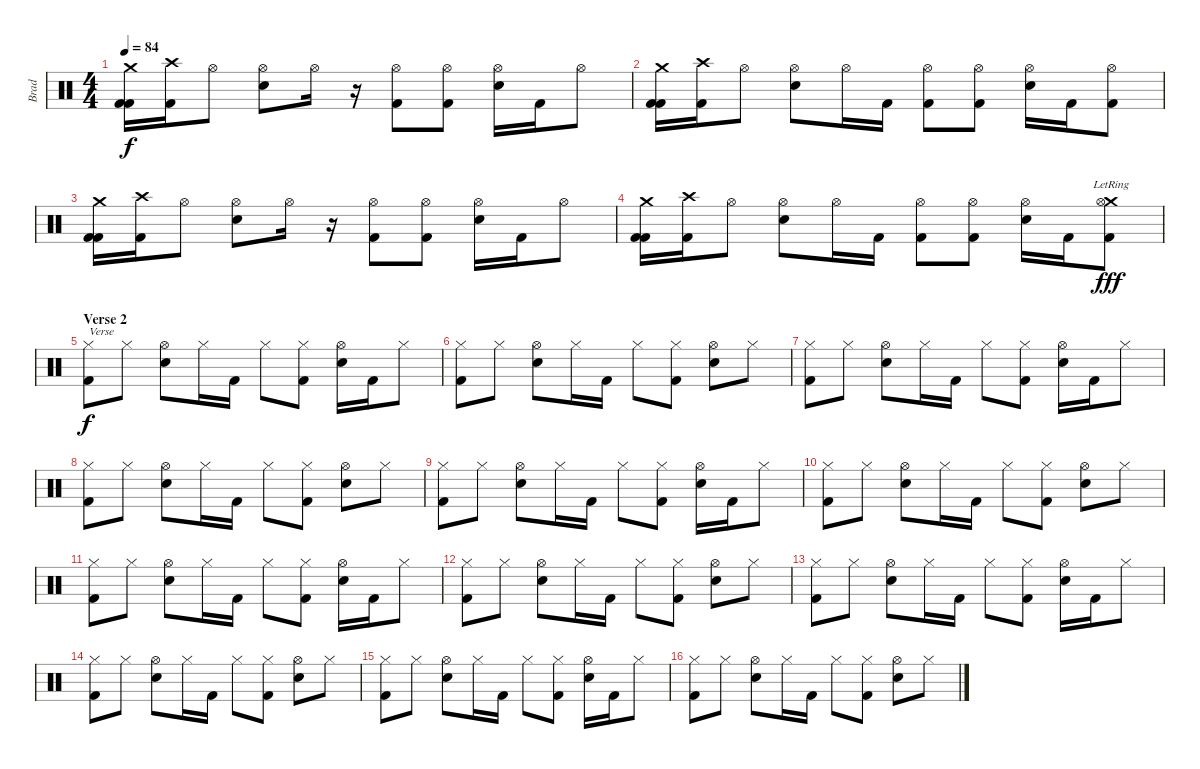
\track ("Brad" "Brad") {instrument percussion}
\staff {score}
\articulation defaults
\ts (4 4)
\tempo 84
\clef neutral
\ks c
("Crash medium (hit)" "Kick (hit) 2" "Kick (hit) 2").16{dy f} ("Crash high (hit)" "Kick (hit) 2").16 "Hi-Hat (open)".8 ("Hi-Hat (open)" "Electric Snare (hit)").8 "Hi-Hat (open)".16 r.16 ("Hi-Hat (open)" "Kick (hit) 2").8 ("Hi-Hat (open)" "Kick (hit) 2").8 ("Hi-Hat (open)" "Electric Snare (hit)").16 "Kick (hit) 2".16 "Hi-Hat (open)".8 |
("Crash medium (hit)" "Kick (hit) 2" "Kick (hit) 2").16 ("Crash high (hit)" "Kick (hit) 2").16 "Hi-Hat (open)".8 ("Hi-Hat (open)" "Electric Snare (hit)").8 "Hi-Hat (open)".16 "Kick (hit) 2".16 ("Hi-Hat (open)" "Kick (hit) 2").8 ("Hi-Hat (open)" "Kick (hit) 2").8 ("Hi-Hat (open)" "Electric Snare (hit)").16 "Kick (hit) 2".16 ("Hi-Hat (open)" "Kick (hit) 2").8 |
("Crash medium (hit)" "Kick (hit) 2" "Kick (hit) 2").16 ("Crash high (hit)" "Kick (hit) 2").16 "Hi-Hat (open)".8 ("Hi-Hat (open)" "Electric Snare (hit)").8 "Hi-Hat (open)".16 r.16 ("Hi-Hat (open)" "Kick (hit) 2").8 ("Hi-Hat (open)" "Kick (hit) 2").8 ("Hi-Hat (open)" "Electric Snare (hit)").16 "Kick (hit) 2".16 "Hi-Hat (open)".8 |
("Crash medium (hit)" "Kick (hit) 2" "Kick (hit) 2").16 ("Crash high (hit)" "Kick (hit) 2").16 "Hi-Hat (open)".8 ("Hi-Hat (open)" "Electric Snare (hit)").8 "Hi-Hat (open)".16 "Kick (hit) 2".16 ("Hi-Hat (open)" "Kick (hit) 2").8 ("Hi-Hat (open)" "Kick (hit) 2").8 ("Hi-Hat (open)" "Electric Snare (hit)").16 "Kick (hit) 2".16 ("Crash medium (hit)"{lr} "Hi-Hat (open)" "Kick (hit) 2").8{dy fff} |
\section ("" "Verse 2")
("Hi-Hat (closed)" "Kick (hit) 2").8{txt "Verse" dy f} "Hi-Hat (closed)".8 ("Hi-Hat (open)" "Electric Snare (hit)").8 "Hi-Hat (closed)".16 "Kick (hit) 2".16 "Hi-Hat (closed)".8 ("Hi-Hat (closed)" "Kick (hit) 2").8 ("Hi-Hat (open)" "Electric Snare (hit)").16 "Kick (hit) 2".16 "Hi-Hat (closed)".8 |
("Hi-Hat (closed)" "Kick (hit) 2").8 "Hi-Hat (closed)".8 ("Hi-Hat (open)" "Electric Snare (hit)").8 "Hi-Hat (closed)".16 "Kick (hit) 2".16 "Hi-Hat (closed)".8 ("Hi-Hat (closed)" "Kick (hit) 2").8 ("Hi-Hat (open)" "Electric Snare (hit)").8 "Hi-Hat (closed)".8 |
("Hi-Hat (closed)" "Kick (hit) 2").8 "Hi-Hat (closed)".8 ("Hi-Hat (open)" "Electric Snare (hit)").8 "Hi-Hat (closed)".16 "Kick (hit) 2".16 "Hi-Hat (closed)".8 ("Hi-Hat (closed)" "Kick (hit) 2").8 ("Hi-Hat (open)" "Electric Snare (hit)").16 "Kick (hit) 2".16 "Hi-Hat (closed)".8 |
("Hi-Hat (closed)" "Kick (hit) 2").8 "Hi-Hat (closed)".8 ("Hi-Hat (open)" "Electric Snare (hit)").8 "Hi-Hat (closed)".16 "Kick (hit) 2".16 "Hi-Hat (closed)".8 ("Hi-Hat (closed)" "Kick (hit) 2").8 ("Hi-Hat (open)" "Electric Snare (hit)").8 "Hi-Hat (closed)".8 |
("Hi-Hat (closed)" "Kick (hit) 2").8 "Hi-Hat (closed)".8 ("Hi-Hat (open)" "Electric Snare (hit)").8 "Hi-Hat (closed)".16 "Kick (hit) 2".16 "Hi-Hat (closed)".8 ("Hi-Hat (closed)" "Kick (hit) 2").8 ("Hi-Hat (open)" "Electric Snare (hit)").16 "Kick (hit) 2".16 "Hi-Hat (closed)".8 |
("Hi-Hat (closed)" "Kick (hit) 2").8 "Hi-Hat (closed)".8 ("Hi-Hat (open)" "Electric Snare (hit)").8 "Hi-Hat (closed)".16 "Kick (hit) 2".16 "Hi-Hat (closed)".8 ("Hi-Hat (closed)" "Kick (hit) 2").8 ("Hi-Hat (open)" "Electric Snare (hit)").8 "Hi-Hat (closed)".8 |
("Hi-Hat (closed)" "Kick (hit) 2").8 "Hi-Hat (closed)".8 ("Hi-Hat (open)" "Electric Snare (hit)").8 "Hi-Hat (closed)".16 "Kick (hit) 2".16 "Hi-Hat (closed)".8 ("Hi-Hat (closed)" "Kick (hit) 2").8 ("Hi-Hat (open)" "Electric Snare (hit)").16 "Kick (hit) 2".16 "Hi-Hat (closed)".8 |
("Hi-Hat (closed)" "Kick (hit) 2").8 "Hi-Hat (closed)".8 ("Hi-Hat (open)" "Electric Snare (hit)").8 "Hi-Hat (closed)".16 "Kick (hit) 2".16 "Hi-Hat (closed)".8 ("Hi-Hat (closed)" "Kick (hit) 2").8 ("Hi-Hat (open)" "Electric Snare (hit)").8 "Hi-Hat (closed)".8 |
("Hi-Hat (closed)" "Kick (hit) 2").8 "Hi-Hat (closed)".8 ("Hi-Hat (open)" "Electric Snare (hit)").8 "Hi-Hat (closed)".16 "Kick (hit) 2".16 "Hi-Hat (closed)".8 ("Hi-Hat (closed)" "Kick (hit) 2").8 ("Hi-Hat (open)" "Electric Snare (hit)").16 "Kick (hit) 2".16 "Hi-Hat (closed)".8 |
("Hi-Hat (closed)" "Kick (hit) 2").8 "Hi-Hat (closed)".8 ("Hi-Hat (open)" "Electric Snare (hit)").8 "Hi-Hat (closed)".16 "Kick (hit) 2".16 "Hi-Hat (closed)".8 ("Hi-Hat (closed)" "Kick (hit) 2").8 ("Hi-Hat (open)" "Electric Snare (hit)").8 "Hi-Hat (closed)".8 |
("Hi-Hat (closed)" "Kick (hit) 2").8 "Hi-Hat (closed)".8 ("Hi-Hat (open)" "Electric Snare (hit)").8 "Hi-Hat (closed)".16 "Kick (hit) 2".16 "Hi-Hat (closed)".8 ("Hi-Hat (closed)" "Kick (hit) 2").8 ("Hi-Hat (open)" "Electric Snare (hit)").16 "Kick (hit) 2".16 "Hi-Hat (closed)".8 |
("Hi-Hat (closed)" "Kick (hit) 2").8 "Hi-Hat (closed)".8 ("Hi-Hat (open)" "Electric Snare (hit)").8 "Hi-Hat (closed)".16 "Kick (hit) 2".16 "Hi-Hat (closed)".8 ("Hi-Hat (closed)" "Kick (hit) 2").8 ("Hi-Hat (open)" "Electric Snare (hit)").8 "Hi-Hat (closed)".8
